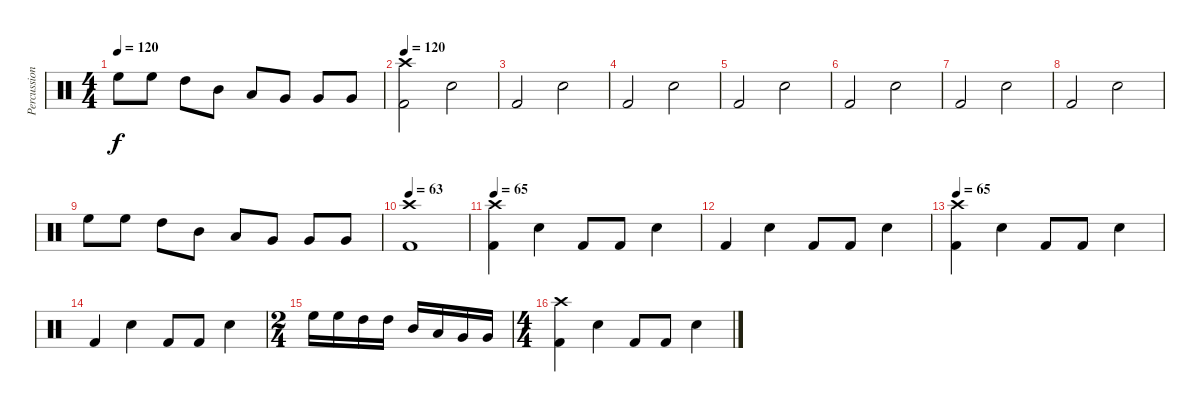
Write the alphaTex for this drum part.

\track ("Percussions" "Percussion") {instrument percussion}
\staff {score}
\articulation defaults
\ts (4 4)
\tempo 120
\clef neutral
\ks c "High Floor Tom (hit)".8{dy f} "High Floor Tom (hit)".8 "High Tom (hit)".8 "Mid Tom (hit)".8 "Low Tom (hit)".8 "Very Low Tom (hit)".8 "Very Low Tom (hit)".8 "Very Low Tom (hit)".8
|
\tempo 120
("Crash high (hit)" "Kick (hit) 2").2 "Snare (hit) 2".2 |
"Kick (hit) 2".2 "Snare (hit) 2".2 |
"Kick (hit) 2".2 "Snare (hit) 2".2 |
"Kick (hit) 2".2 "Snare (hit) 2".2 |
"Kick (hit) 2".2 "Snare (hit) 2".2 |
"Kick (hit) 2".2 "Snare (hit) 2".2 |
"Kick (hit) 2".2 "Snare (hit) 2".2 |
"High Floor Tom (hit)".8 "High Floor Tom (hit)".8 "High Tom (hit)".8 "Mid Tom (hit)".8 "Low Tom (hit)".8 "Very Low Tom (hit)".8 "Very Low Tom (hit)".8 "Very Low Tom (hit)".8 |
\tempo 63
("Crash high (hit)" "Kick (hit) 2").1 |
\tempo 65
("Crash high (hit)" "Kick (hit) 2").4 "Snare (hit) 2".4 "Kick (hit) 2".8 "Kick (hit) 2".8 "Snare (hit) 2".4 |
"Kick (hit) 2".4 "Snare (hit) 2".4 "Kick (hit) 2".8 "Kick (hit) 2".8 "Snare (hit) 2".4 |
\tempo 65
("Crash high (hit)" "Kick (hit) 2").4 "Snare (hit) 2".4 "Kick (hit) 2".8 "Kick (hit) 2".8 "Snare (hit) 2".4 |
"Kick (hit) 2".4 "Snare (hit) 2".4 "Kick (hit) 2".8 "Kick (hit) 2".8 "Snare (hit) 2".4 |
\ts (2 4)
"High Floor Tom (hit)".16 "High Floor Tom (hit)".16 "High Tom (hit)".16 "High Tom (hit)".16 "Mid Tom (hit)".16 "Low Tom (hit)".16 "Very Low Tom (hit)".16 "Very Low Tom (hit)".16 |
\ts (4 4)
("Crash high (hit)" "Kick (hit) 2").4 "Snare (hit) 2".4 "Kick (hit) 2".8 "Kick (hit) 2".8 "Snare (hit) 2".4
